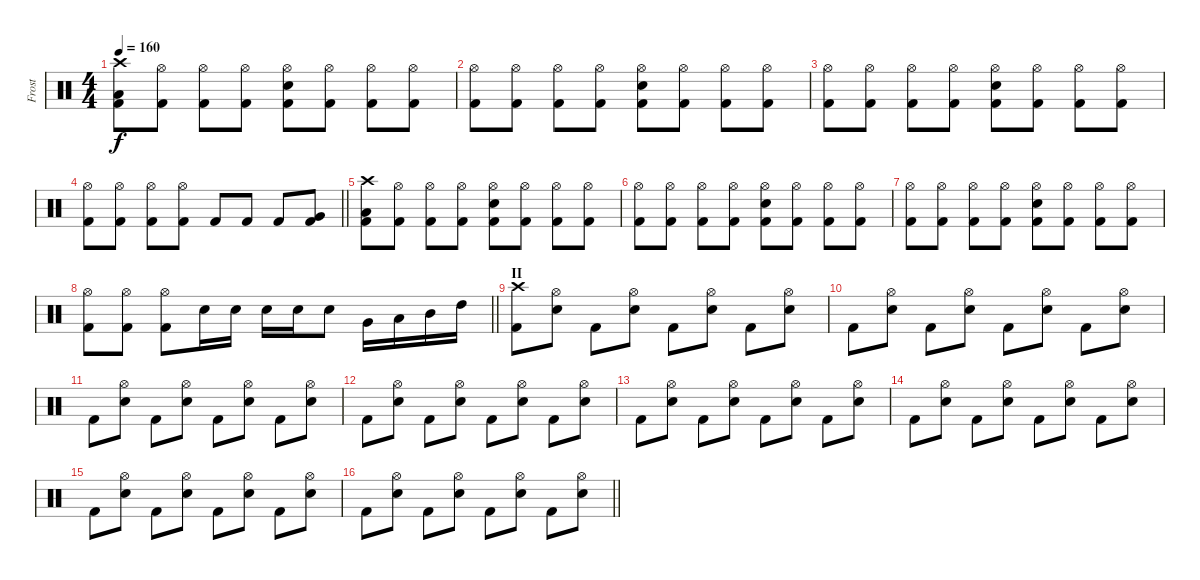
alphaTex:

\track ("Frost" "Frost") {instrument percussion}
\staff {score}
\articulation defaults
\ts (4 4)
\tempo 160
\clef neutral
\ks c
("Crash high (hit)" "Low Tom (hit)" "Kick (hit) 2").8{dy f} ("Hi-Hat (open)" "Kick (hit) 2").8 ("Hi-Hat (open)" "Kick (hit) 2").8 ("Hi-Hat (open)" "Kick (hit) 2").8 ("Hi-Hat (open)" "Snare (hit) 2" "Kick (hit) 2").8 ("Hi-Hat (open)" "Kick (hit) 2").8 ("Hi-Hat (open)" "Kick (hit) 2").8 ("Hi-Hat (open)" "Kick (hit) 2").8 |
("Hi-Hat (open)" "Kick (hit) 2").8 ("Hi-Hat (open)" "Kick (hit) 2").8 ("Hi-Hat (open)" "Kick (hit) 2").8 ("Hi-Hat (open)" "Kick (hit) 2").8 ("Hi-Hat (open)" "Snare (hit) 2" "Kick (hit) 2").8 ("Hi-Hat (open)" "Kick (hit) 2").8 ("Hi-Hat (open)" "Kick (hit) 2").8 ("Hi-Hat (open)" "Kick (hit) 2").8 |
("Hi-Hat (open)" "Kick (hit) 2").8 ("Hi-Hat (open)" "Kick (hit) 2").8 ("Hi-Hat (open)" "Kick (hit) 2").8 ("Hi-Hat (open)" "Kick (hit) 2").8 ("Hi-Hat (open)" "Snare (hit) 2" "Kick (hit) 2").8 ("Hi-Hat (open)" "Kick (hit) 2").8 ("Hi-Hat (open)" "Kick (hit) 2").8 ("Hi-Hat (open)" "Kick (hit) 2").8 |
\barLineRight lightlight
("Hi-Hat (open)" "Kick (hit) 2").8 ("Hi-Hat (open)" "Kick (hit) 2").8 ("Hi-Hat (open)" "Kick (hit) 2").8 ("Hi-Hat (open)" "Kick (hit) 2").8 "Kick (hit) 2".8 "Kick (hit) 2".8 "Kick (hit) 2".8 ("Very Low Tom (hit)" "Kick (hit) 2").8 |
("Crash high (hit)" "Low Tom (hit)" "Kick (hit) 2").8 ("Hi-Hat (open)" "Kick (hit) 2").8 ("Hi-Hat (open)" "Kick (hit) 2").8 ("Hi-Hat (open)" "Kick (hit) 2").8 ("Hi-Hat (open)" "Snare (hit) 2" "Kick (hit) 2").8 ("Hi-Hat (open)" "Kick (hit) 2").8 ("Hi-Hat (open)" "Kick (hit) 2").8 ("Hi-Hat (open)" "Kick (hit) 2").8 |
("Hi-Hat (open)" "Kick (hit) 2").8 ("Hi-Hat (open)" "Kick (hit) 2").8 ("Hi-Hat (open)" "Kick (hit) 2").8 ("Hi-Hat (open)" "Kick (hit) 2").8 ("Hi-Hat (open)" "Snare (hit) 2" "Kick (hit) 2").8 ("Hi-Hat (open)" "Kick (hit) 2").8 ("Hi-Hat (open)" "Kick (hit) 2").8 ("Hi-Hat (open)" "Kick (hit) 2").8 |
("Hi-Hat (open)" "Kick (hit) 2").8 ("Hi-Hat (open)" "Kick (hit) 2").8 ("Hi-Hat (open)" "Kick (hit) 2").8 ("Hi-Hat (open)" "Kick (hit) 2").8 ("Hi-Hat (open)" "Snare (hit) 2" "Kick (hit) 2").8 ("Hi-Hat (open)" "Kick (hit) 2").8 ("Hi-Hat (open)" "Kick (hit) 2").8 ("Hi-Hat (open)" "Kick (hit) 2").8 |
\barLineRight lightlight
("Hi-Hat (open)" "Kick (hit) 2").8 ("Hi-Hat (open)" "Kick (hit) 2").8 ("Hi-Hat (open)" "Kick (hit) 2").8 "Snare (hit) 2".16 "Snare (hit) 2".16 "Snare (hit) 2".16 "Snare (hit) 2".16 "Snare (hit) 2".8 "Very Low Tom (hit)".16 "Low Tom (hit)".16 "Mid Tom (hit)".16 "High Tom (hit)".16 |
\section ("" "II")
("Crash high (hit)" "Kick (hit) 2").8 ("Hi-Hat (open)" "Snare (hit) 2").8 "Kick (hit) 2".8 ("Hi-Hat (open)" "Snare (hit) 2").8 "Kick (hit) 2".8 ("Hi-Hat (open)" "Snare (hit) 2").8 "Kick (hit) 2".8 ("Hi-Hat (open)" "Snare (hit) 2").8 |
"Kick (hit) 2".8 ("Hi-Hat (open)" "Snare (hit) 2").8 "Kick (hit) 2".8 ("Hi-Hat (open)" "Snare (hit) 2").8 "Kick (hit) 2".8 ("Hi-Hat (open)" "Snare (hit) 2").8 "Kick (hit) 2".8 ("Hi-Hat (open)" "Snare (hit) 2").8 |
"Kick (hit) 2".8 ("Hi-Hat (open)" "Snare (hit) 2").8 "Kick (hit) 2".8 ("Hi-Hat (open)" "Snare (hit) 2").8 "Kick (hit) 2".8 ("Hi-Hat (open)" "Snare (hit) 2").8 "Kick (hit) 2".8 ("Hi-Hat (open)" "Snare (hit) 2").8 |
"Kick (hit) 2".8 ("Hi-Hat (open)" "Snare (hit) 2").8 "Kick (hit) 2".8 ("Hi-Hat (open)" "Snare (hit) 2").8 "Kick (hit) 2".8 ("Hi-Hat (open)" "Snare (hit) 2").8 "Kick (hit) 2".8 ("Hi-Hat (open)" "Snare (hit) 2").8 |
"Kick (hit) 2".8 ("Hi-Hat (open)" "Snare (hit) 2").8 "Kick (hit) 2".8 ("Hi-Hat (open)" "Snare (hit) 2").8 "Kick (hit) 2".8 ("Hi-Hat (open)" "Snare (hit) 2").8 "Kick (hit) 2".8 ("Hi-Hat (open)" "Snare (hit) 2").8 |
"Kick (hit) 2".8 ("Hi-Hat (open)" "Snare (hit) 2").8 "Kick (hit) 2".8 ("Hi-Hat (open)" "Snare (hit) 2").8 "Kick (hit) 2".8 ("Hi-Hat (open)" "Snare (hit) 2").8 "Kick (hit) 2".8 ("Hi-Hat (open)" "Snare (hit) 2").8 |
"Kick (hit) 2".8 ("Hi-Hat (open)" "Snare (hit) 2").8 "Kick (hit) 2".8 ("Hi-Hat (open)" "Snare (hit) 2").8 "Kick (hit) 2".8 ("Hi-Hat (open)" "Snare (hit) 2").8 "Kick (hit) 2".8 ("Hi-Hat (open)" "Snare (hit) 2").8 |
\barLineRight lightlight "Kick (hit) 2".8
("Hi-Hat (open)" "Snare (hit) 2").8 "Kick (hit) 2".8 ("Hi-Hat (open)" "Snare (hit) 2").8 "Kick (hit) 2".8 ("Hi-Hat (open)" "Snare (hit) 2").8 "Kick (hit) 2".8 ("Hi-Hat (open)" "Snare (hit) 2").8
